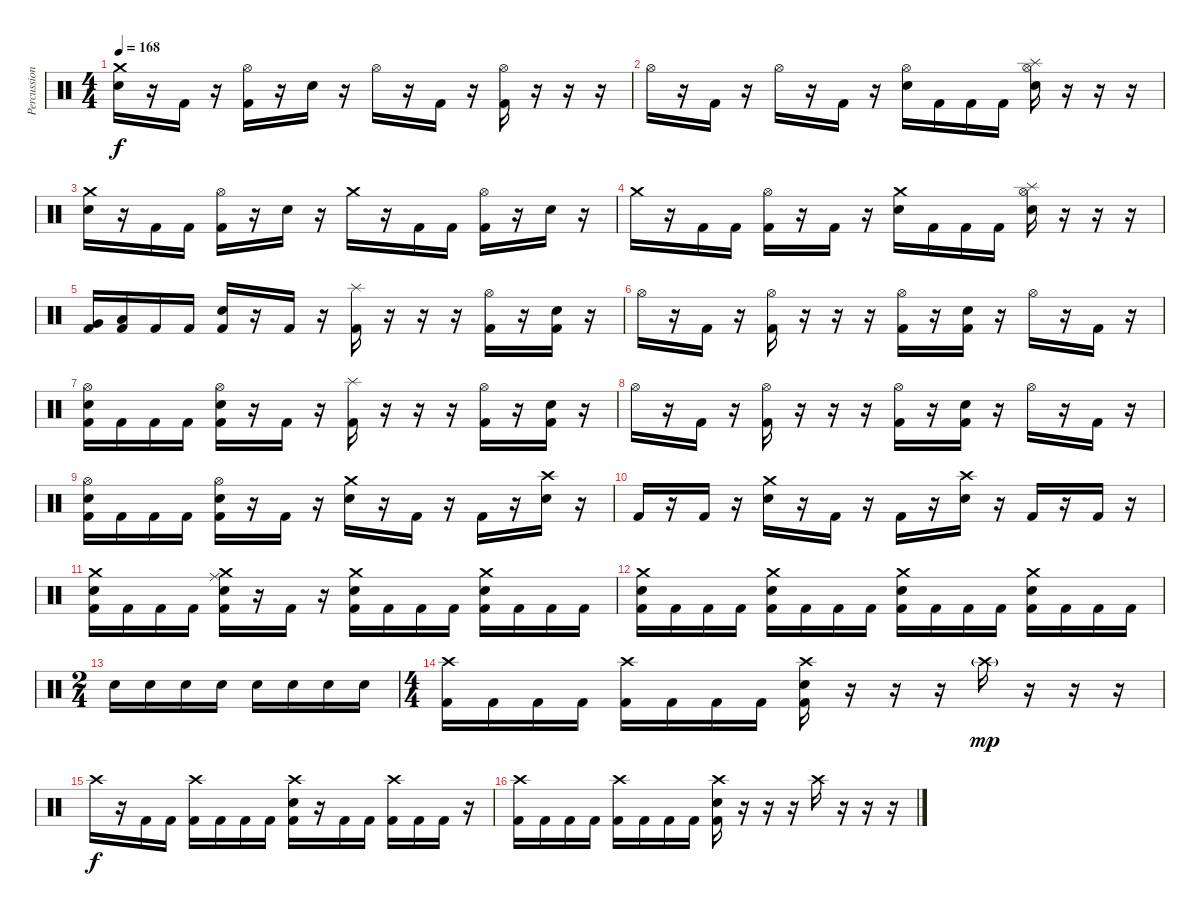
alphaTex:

\track ("Percussion" "Percussion") {instrument percussion}
\staff {score}
\articulation defaults
\ts (4 4)
\tempo 168
\clef neutral
\ks c
("Crash medium (hit)" "Electric Snare (hit)").16{dy f} r.16 "Kick (hit) 2".16 r.16 ("Hi-Hat (open)" "Kick (hit) 2").16 r.16 "Electric Snare (hit)".16 r.16 "Hi-Hat (open)".16 r.16 "Kick (hit) 2".16 r.16 ("Hi-Hat (open)" "Kick (hit) 2").16 r.16 r.16 r.16 |
"Hi-Hat (open)".16 r.16 "Kick (hit) 2".16 r.16 "Hi-Hat (open)".16 r.16 "Kick (hit) 2".16 r.16 ("Hi-Hat (open)" "Electric Snare (hit)").16 "Kick (hit) 2".16 "Kick (hit) 2".16 "Kick (hit) 2".16 ("Hi-Hat (open)" "Splash (hit)" "Electric Snare (hit)").16 r.16 r.16 r.16 |
("Crash medium (hit)" "Electric Snare (hit)").16 r.16 "Kick (hit) 2".16 "Kick (hit) 2".16 ("Hi-Hat (open)" "Kick (hit) 2").16 r.16 "Electric Snare (hit)".16 r.16 "Crash medium (hit)".16 r.16 "Kick (hit) 2".16 "Kick (hit) 2".16 ("Hi-Hat (open)" "Kick (hit) 2").16 r.16 "Electric Snare (hit)".16 r.16 |
"Crash medium (hit)".16 r.16 "Kick (hit) 2".16 "Kick (hit) 2".16 ("Hi-Hat (open)" "Kick (hit) 2").16 r.16 "Kick (hit) 2".16 r.16 ("Crash medium (hit)" "Electric Snare (hit)").16 "Kick (hit) 2".16 "Kick (hit) 2".16 "Kick (hit) 2".16 ("Hi-Hat (open)" "Splash (hit)" "Electric Snare (hit)").16 r.16 r.16 r.16 |
("Very Low Tom (hit)" "Kick (hit) 2").16 ("Low Floor Tom (hit)" "Kick (hit) 2").16 "Kick (hit) 2".16 "Kick (hit) 2".16 ("Electric Snare (hit)" "Kick (hit) 2").16 r.16 "Kick (hit) 2".16 r.16 ("Splash (hit)" "Kick (hit) 2").16 r.16 r.16 r.16 ("Hi-Hat (open)" "Kick (hit) 2").16 r.16 ("Electric Snare (hit)" "Kick (hit) 2").16 r.16 |
"Hi-Hat (open)".16 r.16 "Kick (hit) 2".16 r.16 ("Hi-Hat (open)" "Kick (hit) 2").16 r.16 r.16 r.16 ("Hi-Hat (open)" "Kick (hit) 2").16 r.16 ("Electric Snare (hit)" "Kick (hit) 2").16 r.16 "Hi-Hat (open)".16 r.16 "Kick (hit) 2".16 r.16 |
("Hi-Hat (open)" "Electric Snare (hit)" "Kick (hit) 2").16 "Kick (hit) 2".16 "Kick (hit) 2".16 "Kick (hit) 2".16 ("Hi-Hat (open)" "Electric Snare (hit)" "Kick (hit) 2").16 r.16 "Kick (hit) 2".16 r.16 ("Splash (hit)" "Kick (hit) 2").16 r.16 r.16 r.16 ("Hi-Hat (open)" "Kick (hit) 2").16 r.16 ("Electric Snare (hit)" "Kick (hit) 2").16 r.16 |
"Hi-Hat (open)".16 r.16 "Kick (hit) 2".16 r.16 ("Hi-Hat (open)" "Kick (hit) 2").16 r.16 r.16 r.16 ("Hi-Hat (open)" "Kick (hit) 2").16 r.16 ("Electric Snare (hit)" "Kick (hit) 2").16 r.16 "Hi-Hat (open)".16 r.16 "Kick (hit) 2".16 r.16 |
("Hi-Hat (open)" "Electric Snare (hit)" "Kick (hit) 2").16 "Kick (hit) 2".16 "Kick (hit) 2".16 "Kick (hit) 2".16 ("Hi-Hat (open)" "Electric Snare (hit)" "Kick (hit) 2").16 r.16 "Kick (hit) 2".16 r.16 ("Crash medium (hit)" "Electric Snare (hit)").16 r.16 "Kick (hit) 2".16 r.16 "Kick (hit) 2".16 r.16 ("Crash high (hit)" "Electric Snare (hit)").16 r.16 |
"Kick (hit) 2".16 r.16 "Kick (hit) 2".16 r.16 ("Crash medium (hit)" "Electric Snare (hit)").16 r.16 "Kick (hit) 2".16 r.16 "Kick (hit) 2".16 r.16 ("Crash high (hit)" "Electric Snare (hit)").16 r.16 "Kick (hit) 2".16 r.16 "Kick (hit) 2".16 r.16 |
("Crash medium (hit)" "Electric Snare (hit)" "Kick (hit) 2").16 "Kick (hit) 2".16 "Kick (hit) 2".16 "Kick (hit) 2".16 ("Crash medium (hit)" "Ride (middle)" "Electric Snare (hit)" "Kick (hit) 2").16 r.16 "Kick (hit) 2".16 r.16 ("Crash medium (hit)" "Electric Snare (hit)" "Kick (hit) 2").16 "Kick (hit) 2".16 "Kick (hit) 2".16 "Kick (hit) 2".16 ("Crash medium (hit)" "Electric Snare (hit)" "Kick (hit) 2").16 "Kick (hit) 2".16 "Kick (hit) 2".16 "Kick (hit) 2".16 |
("Crash medium (hit)" "Electric Snare (hit)" "Kick (hit) 2").16 "Kick (hit) 2".16 "Kick (hit) 2".16 "Kick (hit) 2".16 ("Crash medium (hit)" "Electric Snare (hit)" "Kick (hit) 2").16 "Kick (hit) 2".16 "Kick (hit) 2".16 "Kick (hit) 2".16 ("Crash medium (hit)" "Electric Snare (hit)" "Kick (hit) 2").16 "Kick (hit) 2".16 "Kick (hit) 2".16 "Kick (hit) 2".16 ("Crash medium (hit)" "Electric Snare (hit)" "Kick (hit) 2").16 "Kick (hit) 2".16 "Kick (hit) 2".16 "Kick (hit) 2".16 |
\ts (2 4)
"Electric Snare (hit)".16 "Electric Snare (hit)".16 "Electric Snare (hit)".16 "Electric Snare (hit)".16 "Electric Snare (hit)".16 "Electric Snare (hit)".16 "Electric Snare (hit)".16 "Electric Snare (hit)".16 |
\ts (4 4)
("Crash high (hit)" "Kick (hit) 2").16 "Kick (hit) 2".16 "Kick (hit) 2".16 "Kick (hit) 2".16 ("Crash high (hit)" "Kick (hit) 2").16 "Kick (hit) 2".16 "Kick (hit) 2".16 "Kick (hit) 2".16 ("Crash high (hit)" "Electric Snare (hit)" "Kick (hit) 2").16 r.16 r.16 r.16 "Crash high (hit)"{g}.16{dy mp} r.16 r.16 r.16 |
"Crash high (hit)".16{dy f} r.16 "Kick (hit) 2".16 "Kick (hit) 2".16 ("Crash high (hit)" "Kick (hit) 2").16 "Kick (hit) 2".16 "Kick (hit) 2".16 "Kick (hit) 2".16 ("Crash high (hit)" "Electric Snare (hit)" "Kick (hit) 2").16 r.16 "Kick (hit) 2".16 "Kick (hit) 2".16 ("Crash high (hit)" "Kick (hit) 2").16 "Kick (hit) 2".16 "Kick (hit) 2".16 r.16 |
("Crash high (hit)" "Kick (hit) 2").16 "Kick (hit) 2".16 "Kick (hit) 2".16 "Kick (hit) 2".16 ("Crash high (hit)" "Kick (hit) 2").16 "Kick (hit) 2".16 "Kick (hit) 2".16 "Kick (hit) 2".16 ("Crash high (hit)" "Electric Snare (hit)" "Kick (hit) 2").16 r.16 r.16 r.16 "Crash high (hit)".16 r.16 r.16 r.16
